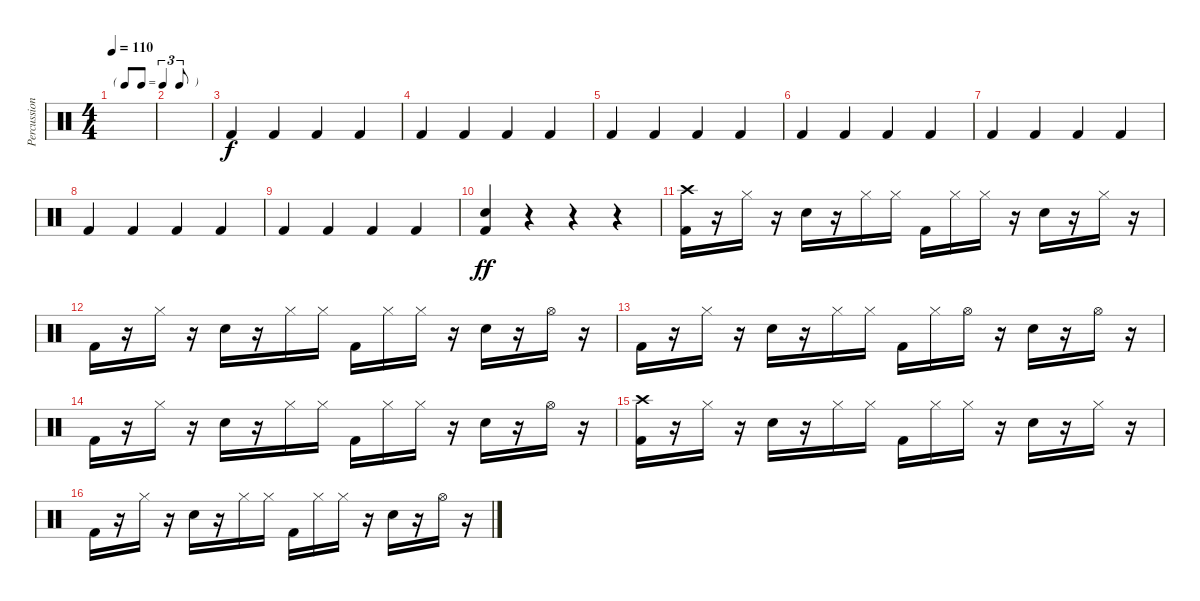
\track ("Percussion" "Percussion") {instrument percussion}
\staff {score}
\articulation defaults
\ts (4 4)
\tf triplet8th
\tempo 110
\clef neutral
\ks c
|
|
"Kick (hit) 2".4 "Kick (hit) 2".4 "Kick (hit) 2".4 "Kick (hit) 2".4 |
"Kick (hit) 2".4 "Kick (hit) 2".4 "Kick (hit) 2".4 "Kick (hit) 2".4 |
"Kick (hit) 2".4 "Kick (hit) 2".4 "Kick (hit) 2".4 "Kick (hit) 2".4 |
"Kick (hit) 2".4 "Kick (hit) 2".4 "Kick (hit) 2".4 "Kick (hit) 2".4 |
"Kick (hit) 2".4 "Kick (hit) 2".4 "Kick (hit) 2".4 "Kick (hit) 2".4 |
"Kick (hit) 2".4 "Kick (hit) 2".4 "Kick (hit) 2".4 "Kick (hit) 2".4 |
"Kick (hit) 2".4 "Kick (hit) 2".4 "Kick (hit) 2".4 "Kick (hit) 2".4 |
("Electric Snare (hit)" "Kick (hit) 2").4{dy ff} r.4 r.4 r.4 |
("Crash high (hit)" "Kick (hit) 2").16 r.16 "Hi-Hat (closed)".16 r.16 "Electric Snare (hit)".16 r.16 "Hi-Hat (closed)".16 "Hi-Hat (closed)".16 "Kick (hit) 2".16 "Hi-Hat (closed)".16 "Hi-Hat (closed)".16 r.16 "Electric Snare (hit)".16 r.16 "Hi-Hat (closed)".16 r.16 |
"Kick (hit) 2".16 r.16 "Hi-Hat (closed)".16 r.16 "Electric Snare (hit)".16 r.16 "Hi-Hat (closed)".16 "Hi-Hat (closed)".16 "Kick (hit) 2".16 "Hi-Hat (closed)".16 "Hi-Hat (closed)".16 r.16 "Electric Snare (hit)".16 r.16 "Hi-Hat (open)".16 r.16 |
"Kick (hit) 2".16 r.16 "Hi-Hat (closed)".16 r.16 "Electric Snare (hit)".16 r.16 "Hi-Hat (closed)".16 "Hi-Hat (closed)".16 "Kick (hit) 2".16 "Hi-Hat (closed)".16 "Hi-Hat (open)".16 r.16 "Electric Snare (hit)".16 r.16 "Hi-Hat (open)".16 r.16 |
"Kick (hit) 2".16 r.16 "Hi-Hat (closed)".16 r.16 "Electric Snare (hit)".16 r.16 "Hi-Hat (closed)".16 "Hi-Hat (closed)".16 "Kick (hit) 2".16 "Hi-Hat (closed)".16 "Hi-Hat (closed)".16 r.16 "Electric Snare (hit)".16 r.16 "Hi-Hat (open)".16 r.16 |
("Crash high (hit)" "Kick (hit) 2").16 r.16 "Hi-Hat (closed)".16 r.16 "Electric Snare (hit)".16 r.16 "Hi-Hat (closed)".16 "Hi-Hat (closed)".16 "Kick (hit) 2".16 "Hi-Hat (closed)".16 "Hi-Hat (closed)".16 r.16 "Electric Snare (hit)".16 r.16 "Hi-Hat (closed)".16 r.16 |
"Kick (hit) 2".16 r.16 "Hi-Hat (closed)".16 r.16 "Electric Snare (hit)".16 r.16 "Hi-Hat (closed)".16 "Hi-Hat (closed)".16 "Kick (hit) 2".16 "Hi-Hat (closed)".16 "Hi-Hat (closed)".16 r.16 "Electric Snare (hit)".16 r.16 "Hi-Hat (open)".16 r.16
